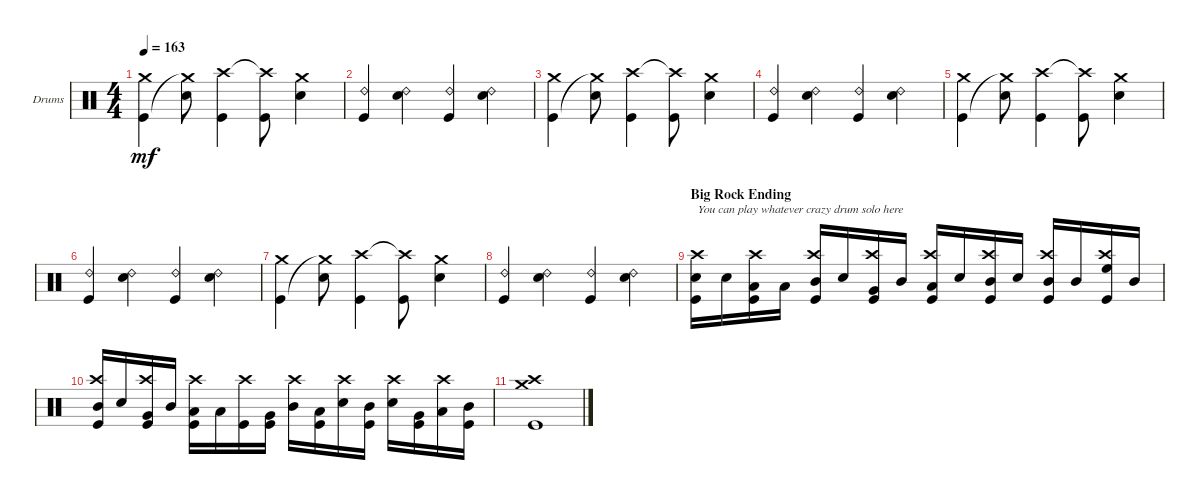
\bracketExtendMode groupsimilarinstruments
\firstSystemTrackNameOrientation horizontal
\otherSystemsTrackNameOrientation horizontal
\track ("Drums" "Drums") {instrument percussion}
\staff {score}
\articulation defaults
\ts (4 4)
\tempo 163
\clef neutral
\scale
0.333333
\ks c
("Crash medium (hit)" "Kick (hit)").4{dy mf} ("Snare (hit) 2" "Crash medium (hit)"{t}).8 ("Kick (hit)" "Crash high (hit)").4 ("Kick (hit)" "Crash high (hit)"{t}).8 ("Snare (hit) 2" "Crash medium (hit)").4 |
\scale
0.333333 ("Ride (bell) 2" "Kick (hit)").4 ("Ride (bell) 2" "Snare (hit) 2").4 ("Ride (bell) 2" "Kick (hit)").4 ("Ride (bell) 2" "Snare (hit) 2").4 |
\scale
0.333333 ("Crash medium (hit)" "Kick (hit)").4 ("Snare (hit) 2" "Crash medium (hit)"{t}).8 ("Kick (hit)" "Crash high (hit)").4 ("Kick (hit)" "Crash high (hit)"{t}).8 ("Snare (hit) 2" "Crash medium (hit)").4 |
\scale
0.333333 ("Ride (bell) 2" "Kick (hit)").4 ("Ride (bell) 2" "Snare (hit) 2").4 ("Ride (bell) 2" "Kick (hit)").4 ("Ride (bell) 2" "Snare (hit) 2").4 |
\scale
0.333333 ("Crash medium (hit)" "Kick (hit)").4 ("Snare (hit) 2" "Crash medium (hit)"{t}).8 ("Kick (hit)" "Crash high (hit)").4 ("Kick (hit)" "Crash high (hit)"{t}).8 ("Snare (hit) 2" "Crash medium (hit)").4 |
\scale
0.333333 ("Ride (bell) 2" "Kick (hit)").4 ("Ride (bell) 2" "Snare (hit) 2").4 ("Ride (bell) 2" "Kick (hit)").4 ("Ride (bell) 2" "Snare (hit) 2").4 |
\scale
0.333333 ("Crash medium (hit)" "Kick (hit)").4 ("Snare (hit) 2" "Crash medium (hit)"{t}).8 ("Kick (hit)" "Crash high (hit)").4 ("Kick (hit)" "Crash high (hit)"{t}).8 ("Snare (hit) 2" "Crash medium (hit)").4 |
\scale
0.333333 ("Ride (bell) 2" "Kick (hit)").4 ("Ride (bell) 2" "Snare (hit) 2").4 ("Ride (bell) 2" "Kick (hit)").4 ("Ride (bell) 2" "Snare (hit) 2").4 |
\section ("" "Big Rock Ending")
("Snare (hit) 2" "Crash high (hit)" "Kick (hit)").16{txt "You can play whatever crazy drum solo here"} "Snare (hit) 2".16 ("Low Tom (hit)" "Kick (hit)" "Crash high (hit)").16 "Low Tom (hit)".16 ("Mid Tom (hit)" "Kick (hit)" "Crash high (hit)").16 "Snare (hit) 2".16 ("Very Low Tom (hit)" "Kick (hit)" "Crash high (hit)").16 "Mid Tom (hit)".16 ("Low Tom (hit)" "Kick (hit)" "Crash high (hit)").16 "Snare (hit) 2".16 ("Mid Tom (hit)" "Kick (hit)" "Crash high (hit)").16 "Snare (hit) 2".16 ("Mid Tom (hit)" "Kick (hit)" "Crash high (hit)").16 "Mid Tom (hit)".16 ("High Floor Tom (hit)" "Kick (hit)" "Crash high (hit)").16 "Mid Tom (hit)".16 |
("Mid Tom (hit)" "Kick (hit)" "Crash high (hit)").16 "Snare (hit) 2".16 ("Very Low Tom (hit)" "Kick (hit)" "Crash high (hit)").16 "Mid Tom (hit)".16 ("Low Tom (hit)" "Kick (hit)" "Crash high (hit)").16 "Low Tom (hit)".16 ("Kick (hit)" "Crash high (hit)").16 ("Very Low Tom (hit)" "Kick (hit)").16 ("Mid Tom (hit)" "Crash high (hit)").16 ("Low Tom (hit)" "Kick (hit)").16 ("Snare (hit) 2" "Crash high (hit)").16 ("Mid Tom (hit)" "Kick (hit)").16 ("Snare (hit) 2" "Crash high (hit)").16 ("Very Low Tom (hit)" "Kick (hit)").16 ("Low Tom (hit)" "Crash high (hit)").16 ("Mid Tom (hit)" "Kick (hit)").16 |
("Crash medium (hit)" "Kick (hit)" "Crash high (hit)").1
